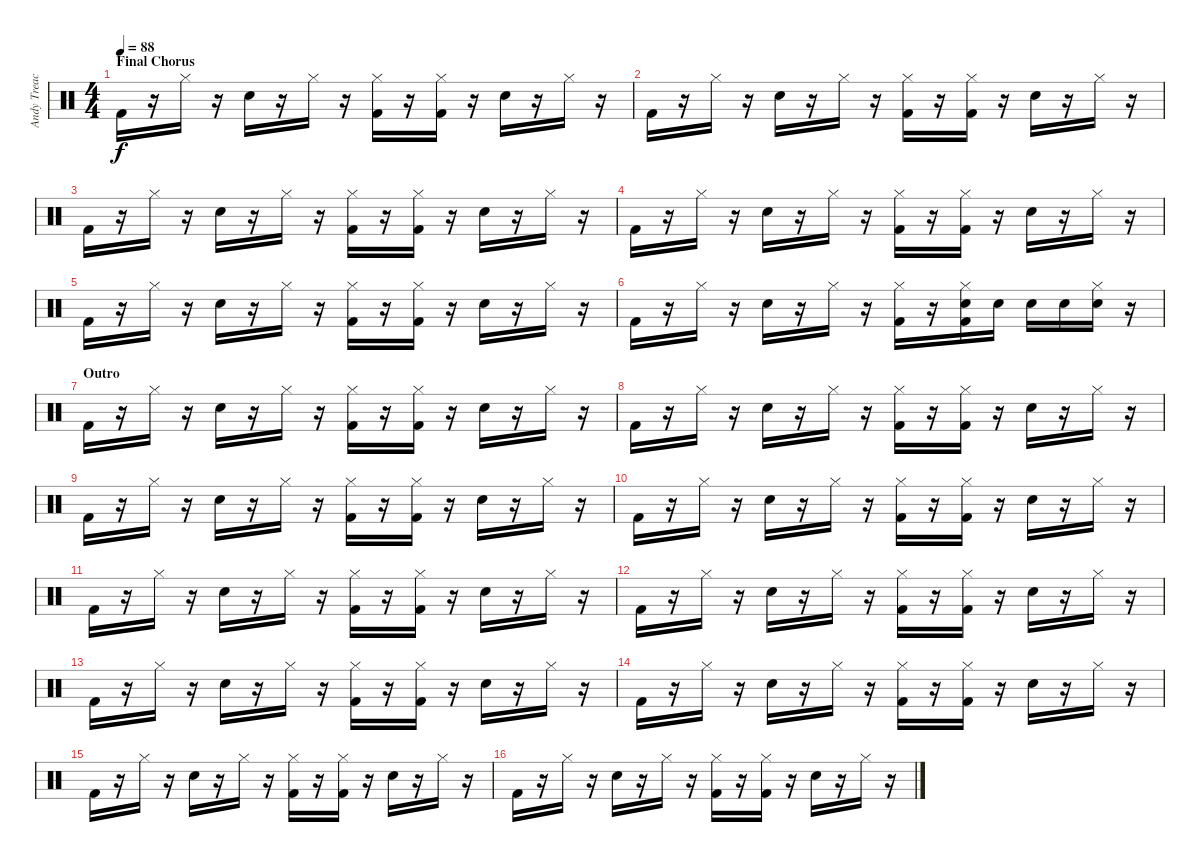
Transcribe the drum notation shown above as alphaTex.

\track ("Andy Treacey" "Andy Treac") {instrument percussion}
\staff {score}
\articulation defaults
\ts (4 4)
\section ("" "Final Chorus")
\tempo 88
\clef neutral
\ks c "Kick (hit) 2".16{dy f}
r.16 "Hi-Hat (closed)".16 r.16 "Electric Snare (hit)".16 r.16 "Hi-Hat (closed)".16 r.16 ("Hi-Hat (closed)" "Kick (hit) 2").16 r.16 ("Hi-Hat (closed)" "Kick (hit) 2").16 r.16 "Electric Snare (hit)".16 r.16 "Hi-Hat (closed)".16 r.16 |
"Kick (hit) 2".16 r.16 "Hi-Hat (closed)".16 r.16 "Electric Snare (hit)".16 r.16 "Hi-Hat (closed)".16 r.16 ("Hi-Hat (closed)" "Kick (hit) 2").16 r.16 ("Hi-Hat (closed)" "Kick (hit) 2").16 r.16 "Electric Snare (hit)".16 r.16 "Hi-Hat (closed)".16 r.16 |
"Kick (hit) 2".16 r.16 "Hi-Hat (closed)".16 r.16 "Electric Snare (hit)".16 r.16 "Hi-Hat (closed)".16 r.16 ("Hi-Hat (closed)" "Kick (hit) 2").16 r.16 ("Hi-Hat (closed)" "Kick (hit) 2").16 r.16 "Electric Snare (hit)".16 r.16 "Hi-Hat (closed)".16 r.16 |
"Kick (hit) 2".16 r.16 "Hi-Hat (closed)".16 r.16 "Electric Snare (hit)".16 r.16 "Hi-Hat (closed)".16 r.16 ("Hi-Hat (closed)" "Kick (hit) 2").16 r.16 ("Hi-Hat (closed)" "Kick (hit) 2").16 r.16 "Electric Snare (hit)".16 r.16 "Hi-Hat (closed)".16 r.16 |
"Kick (hit) 2".16 r.16 "Hi-Hat (closed)".16 r.16 "Electric Snare (hit)".16 r.16 "Hi-Hat (closed)".16 r.16 ("Hi-Hat (closed)" "Kick (hit) 2").16 r.16 ("Hi-Hat (closed)" "Kick (hit) 2").16 r.16 "Electric Snare (hit)".16 r.16 "Hi-Hat (closed)".16 r.16 |
"Kick (hit) 2".16 r.16 "Hi-Hat (closed)".16 r.16 "Electric Snare (hit)".16 r.16 "Hi-Hat (closed)".16 r.16 ("Hi-Hat (closed)" "Kick (hit) 2").16 r.16 ("Hi-Hat (closed)" "Electric Snare (hit)" "Kick (hit) 2").16 "Electric Snare (hit)".16 "Electric Snare (hit)".16 "Electric Snare (hit)".16 ("Hi-Hat (closed)" "Electric Snare (hit)").16 r.16 |
\section ("" "Outro")
"Kick (hit) 2".16 r.16 "Hi-Hat (closed)".16 r.16 "Electric Snare (hit)".16 r.16 "Hi-Hat (closed)".16 r.16 ("Hi-Hat (closed)" "Kick (hit) 2").16 r.16 ("Hi-Hat (closed)" "Kick (hit) 2").16 r.16 "Electric Snare (hit)".16 r.16 "Hi-Hat (closed)".16 r.16 |
"Kick (hit) 2".16 r.16 "Hi-Hat (closed)".16 r.16 "Electric Snare (hit)".16 r.16 "Hi-Hat (closed)".16 r.16 ("Hi-Hat (closed)" "Kick (hit) 2").16 r.16 ("Hi-Hat (closed)" "Kick (hit) 2").16 r.16 "Electric Snare (hit)".16 r.16 "Hi-Hat (closed)".16 r.16 |
"Kick (hit) 2".16 r.16 "Hi-Hat (closed)".16 r.16 "Electric Snare (hit)".16 r.16 "Hi-Hat (closed)".16 r.16 ("Hi-Hat (closed)" "Kick (hit) 2").16 r.16 ("Hi-Hat (closed)" "Kick (hit) 2").16 r.16 "Electric Snare (hit)".16 r.16 "Hi-Hat (closed)".16 r.16 |
"Kick (hit) 2".16 r.16 "Hi-Hat (closed)".16 r.16 "Electric Snare (hit)".16 r.16 "Hi-Hat (closed)".16 r.16 ("Hi-Hat (closed)" "Kick (hit) 2").16 r.16 ("Hi-Hat (closed)" "Kick (hit) 2").16 r.16 "Electric Snare (hit)".16 r.16 "Hi-Hat (closed)".16 r.16 |
"Kick (hit) 2".16 r.16 "Hi-Hat (closed)".16 r.16 "Electric Snare (hit)".16 r.16 "Hi-Hat (closed)".16 r.16 ("Hi-Hat (closed)" "Kick (hit) 2").16 r.16 ("Hi-Hat (closed)" "Kick (hit) 2").16 r.16 "Electric Snare (hit)".16 r.16 "Hi-Hat (closed)".16 r.16 |
"Kick (hit) 2".16 r.16 "Hi-Hat (closed)".16 r.16 "Electric Snare (hit)".16 r.16 "Hi-Hat (closed)".16 r.16 ("Hi-Hat (closed)" "Kick (hit) 2").16 r.16 ("Hi-Hat (closed)" "Kick (hit) 2").16 r.16 "Electric Snare (hit)".16 r.16 "Hi-Hat (closed)".16 r.16 |
"Kick (hit) 2".16 r.16 "Hi-Hat (closed)".16 r.16 "Electric Snare (hit)".16 r.16 "Hi-Hat (closed)".16 r.16 ("Hi-Hat (closed)" "Kick (hit) 2").16 r.16 ("Hi-Hat (closed)" "Kick (hit) 2").16 r.16 "Electric Snare (hit)".16 r.16 "Hi-Hat (closed)".16 r.16 |
"Kick (hit) 2".16 r.16 "Hi-Hat (closed)".16 r.16 "Electric Snare (hit)".16 r.16 "Hi-Hat (closed)".16 r.16 ("Hi-Hat (closed)" "Kick (hit) 2").16 r.16 ("Hi-Hat (closed)" "Kick (hit) 2").16 r.16 "Electric Snare (hit)".16 r.16 "Hi-Hat (closed)".16 r.16 |
"Kick (hit) 2".16 r.16 "Hi-Hat (closed)".16 r.16 "Electric Snare (hit)".16 r.16 "Hi-Hat (closed)".16 r.16 ("Hi-Hat (closed)" "Kick (hit) 2").16 r.16 ("Hi-Hat (closed)" "Kick (hit) 2").16 r.16 "Electric Snare (hit)".16 r.16 "Hi-Hat (closed)".16 r.16 |
"Kick (hit) 2".16 r.16 "Hi-Hat (closed)".16 r.16 "Electric Snare (hit)".16 r.16 "Hi-Hat (closed)".16 r.16 ("Hi-Hat (closed)" "Kick (hit) 2").16 r.16 ("Hi-Hat (closed)" "Kick (hit) 2").16 r.16 "Electric Snare (hit)".16 r.16 "Hi-Hat (closed)".16 r.16
